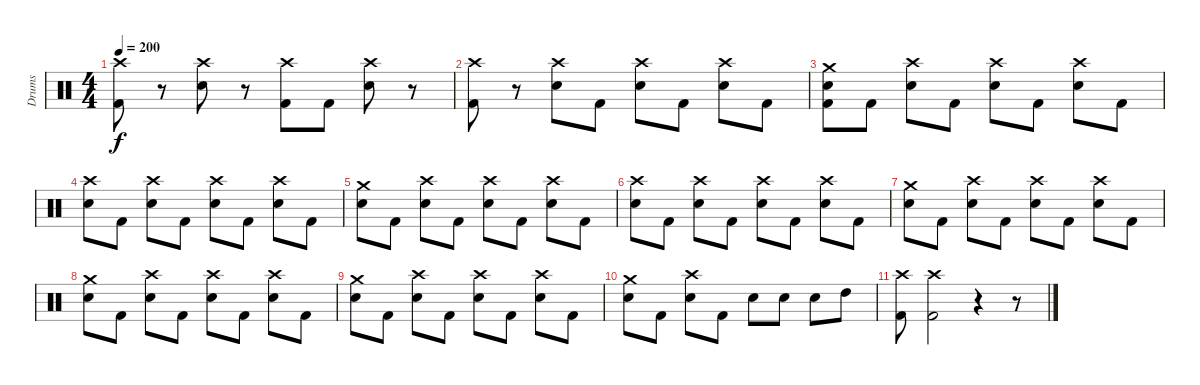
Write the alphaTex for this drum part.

\track ("Drums" "Drums") {instrument percussion}
\staff {score}
\articulation defaults
\ts (4 4)
\tempo 200
\clef neutral
\ks c
("Crash high (hit)" "Kick (hit) 2").8{dy f} r.8 ("Crash high (hit)" "Snare (hit) 2").8 r.8 ("Crash high (hit)" "Kick (hit) 2").8 "Kick (hit) 2".8 ("Crash high (hit)" "Snare (hit) 2").8 r.8 |
("Crash high (hit)" "Kick (hit) 2").8 r.8 ("Crash high (hit)" "Snare (hit) 2").8 "Kick (hit) 2".8 ("Crash high (hit)" "Snare (hit) 2").8 "Kick (hit) 2".8 ("Crash high (hit)" "Snare (hit) 2").8 "Kick (hit) 2".8 |
("Crash medium (hit)" "Kick (hit) 2" "Snare (hit) 2").8 "Kick (hit) 2".8 ("Crash high (hit)" "Snare (hit) 2").8 "Kick (hit) 2".8 ("Crash high (hit)" "Snare (hit) 2").8 "Kick (hit) 2".8 ("Crash high (hit)" "Snare (hit) 2").8 "Kick (hit) 2".8 |
("Crash high (hit)" "Snare (hit) 2").8 "Kick (hit) 2".8 ("Crash high (hit)" "Snare (hit) 2").8 "Kick (hit) 2".8 ("Crash high (hit)" "Snare (hit) 2").8 "Kick (hit) 2".8 ("Crash high (hit)" "Snare (hit) 2").8 "Kick (hit) 2".8 |
("Crash medium (hit)" "Snare (hit) 2").8 "Kick (hit) 2".8 ("Crash high (hit)" "Snare (hit) 2").8 "Kick (hit) 2".8 ("Crash high (hit)" "Snare (hit) 2").8 "Kick (hit) 2".8 ("Crash high (hit)" "Snare (hit) 2").8 "Kick (hit) 2".8 |
("Crash high (hit)" "Snare (hit) 2").8 "Kick (hit) 2".8 ("Crash high (hit)" "Snare (hit) 2").8 "Kick (hit) 2".8 ("Crash high (hit)" "Snare (hit) 2").8 "Kick (hit) 2".8 ("Crash high (hit)" "Snare (hit) 2").8 "Kick (hit) 2".8 |
("Crash medium (hit)" "Snare (hit) 2").8 "Kick (hit) 2".8 ("Crash high (hit)" "Snare (hit) 2").8 "Kick (hit) 2".8 ("Crash high (hit)" "Snare (hit) 2").8 "Kick (hit) 2".8 ("Crash high (hit)" "Snare (hit) 2").8 "Kick (hit) 2".8 |
("Crash medium (hit)" "Snare (hit) 2").8 "Kick (hit) 2".8 ("Crash high (hit)" "Snare (hit) 2").8 "Kick (hit) 2".8 ("Crash high (hit)" "Snare (hit) 2").8 "Kick (hit) 2".8 ("Crash high (hit)" "Snare (hit) 2").8 "Kick (hit) 2".8 |
("Crash medium (hit)" "Snare (hit) 2").8 "Kick (hit) 2".8 ("Crash high (hit)" "Snare (hit) 2").8 "Kick (hit) 2".8 ("Crash high (hit)" "Snare (hit) 2").8 "Kick (hit) 2".8 ("Crash high (hit)" "Snare (hit) 2").8 "Kick (hit) 2".8 |
("Crash medium (hit)" "Snare (hit) 2").8 "Kick (hit) 2".8 ("Crash high (hit)" "Snare (hit) 2").8 "Kick (hit) 2".8 "Snare (hit) 2".8 "Snare (hit) 2".8 "Snare (hit) 2".8 "High Tom (hit)".8 |
("Crash high (hit)" "Kick (hit) 2").8 ("Crash high (hit)" "Kick (hit) 2").2 r.4 r.8
